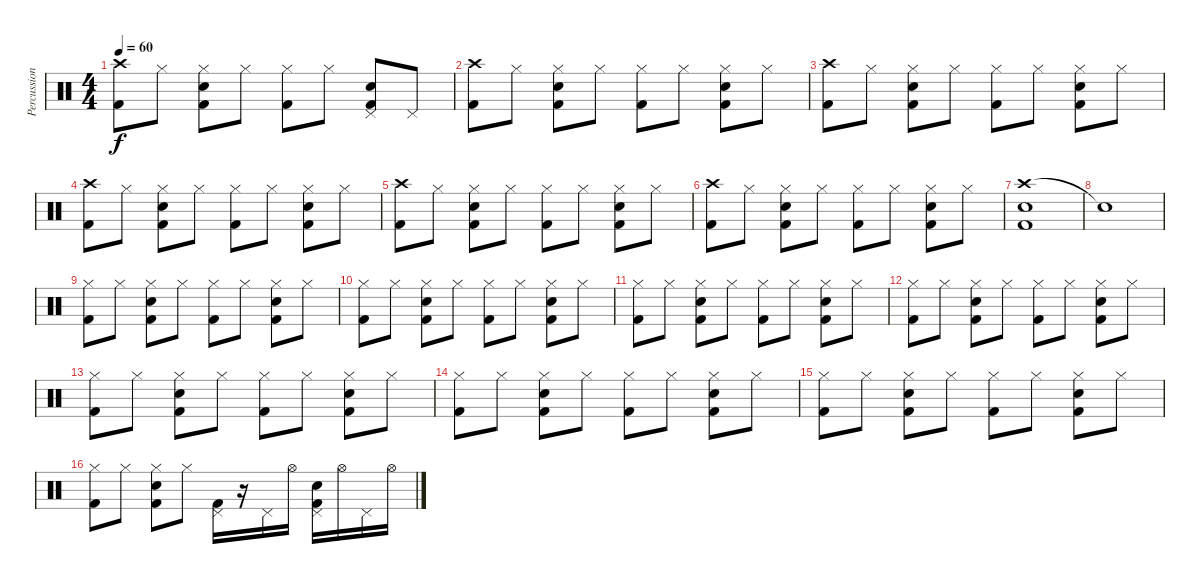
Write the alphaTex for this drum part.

\track ("Percussion" "Percussion") {instrument percussion}
\staff {score}
\articulation defaults
\ts (4 4)
\tempo 60
\clef neutral
\ks c
("Crash high (hit)" "Kick (hit) 2").8{dy f} "Hi-Hat (closed)".8 ("Hi-Hat (closed)" "Electric Snare (hit)" "Kick (hit) 2").8 "Hi-Hat (closed)".8 ("Hi-Hat (closed)" "Kick (hit) 2").8 "Hi-Hat (closed)".8 ("Pedal Hi-Hat (hit)" "Electric Snare (hit)" "Kick (hit) 2").8 "Pedal Hi-Hat (hit)".8 |
("Crash high (hit)" "Kick (hit) 2").8 "Hi-Hat (closed)".8 ("Hi-Hat (closed)" "Electric Snare (hit)" "Kick (hit) 2").8 "Hi-Hat (closed)".8 ("Hi-Hat (closed)" "Kick (hit) 2").8 "Hi-Hat (closed)".8 ("Hi-Hat (closed)" "Electric Snare (hit)" "Kick (hit) 2").8 "Hi-Hat (closed)".8 |
("Crash high (hit)" "Kick (hit) 2").8 "Hi-Hat (closed)".8 ("Hi-Hat (closed)" "Electric Snare (hit)" "Kick (hit) 2").8 "Hi-Hat (closed)".8 ("Hi-Hat (closed)" "Kick (hit) 2").8 "Hi-Hat (closed)".8 ("Hi-Hat (closed)" "Electric Snare (hit)" "Kick (hit) 2").8 "Hi-Hat (closed)".8 |
("Crash high (hit)" "Kick (hit) 2").8 "Hi-Hat (closed)".8 ("Hi-Hat (closed)" "Electric Snare (hit)" "Kick (hit) 2").8 "Hi-Hat (closed)".8 ("Hi-Hat (closed)" "Kick (hit) 2").8 "Hi-Hat (closed)".8 ("Hi-Hat (closed)" "Electric Snare (hit)" "Kick (hit) 2").8 "Hi-Hat (closed)".8 |
("Crash high (hit)" "Kick (hit) 2").8 "Hi-Hat (closed)".8 ("Hi-Hat (closed)" "Electric Snare (hit)" "Kick (hit) 2").8 "Hi-Hat (closed)".8 ("Hi-Hat (closed)" "Kick (hit) 2").8 "Hi-Hat (closed)".8 ("Hi-Hat (closed)" "Electric Snare (hit)" "Kick (hit) 2").8 "Hi-Hat (closed)".8 |
("Crash high (hit)" "Kick (hit) 2").8 "Hi-Hat (closed)".8 ("Hi-Hat (closed)" "Electric Snare (hit)" "Kick (hit) 2").8 "Hi-Hat (closed)".8 ("Hi-Hat (closed)" "Kick (hit) 2").8 "Hi-Hat (closed)".8 ("Hi-Hat (closed)" "Electric Snare (hit)" "Kick (hit) 2").8 "Hi-Hat (closed)".8 |
("Crash high (hit)" "Electric Snare (hit)" "Kick (hit) 2").1 |
"Snare (hit)"{t}.1 |
("Hi-Hat (closed)" "Kick (hit) 2").8 "Hi-Hat (closed)".8 ("Hi-Hat (closed)" "Electric Snare (hit)" "Kick (hit) 2").8 "Hi-Hat (closed)".8 ("Hi-Hat (closed)" "Kick (hit) 2").8 "Hi-Hat (closed)".8 ("Hi-Hat (closed)" "Electric Snare (hit)" "Kick (hit) 2").8 "Hi-Hat (closed)".8 |
("Hi-Hat (closed)" "Kick (hit) 2").8 "Hi-Hat (closed)".8 ("Hi-Hat (closed)" "Electric Snare (hit)" "Kick (hit) 2").8 "Hi-Hat (closed)".8 ("Hi-Hat (closed)" "Kick (hit) 2").8 "Hi-Hat (closed)".8 ("Hi-Hat (closed)" "Electric Snare (hit)" "Kick (hit) 2").8 "Hi-Hat (closed)".8 |
("Hi-Hat (closed)" "Kick (hit) 2").8 "Hi-Hat (closed)".8 ("Hi-Hat (closed)" "Electric Snare (hit)" "Kick (hit) 2").8 "Hi-Hat (closed)".8 ("Hi-Hat (closed)" "Kick (hit) 2").8 "Hi-Hat (closed)".8 ("Hi-Hat (closed)" "Electric Snare (hit)" "Kick (hit) 2").8 "Hi-Hat (closed)".8 |
("Hi-Hat (closed)" "Kick (hit) 2").8 "Hi-Hat (closed)".8 ("Hi-Hat (closed)" "Electric Snare (hit)" "Kick (hit) 2").8 "Hi-Hat (closed)".8 ("Hi-Hat (closed)" "Kick (hit) 2").8 "Hi-Hat (closed)".8 ("Hi-Hat (closed)" "Electric Snare (hit)" "Kick (hit) 2").8 "Hi-Hat (closed)".8 |
("Hi-Hat (closed)" "Kick (hit) 2").8 "Hi-Hat (closed)".8 ("Hi-Hat (closed)" "Electric Snare (hit)" "Kick (hit) 2").8 "Hi-Hat (closed)".8 ("Hi-Hat (closed)" "Kick (hit) 2").8 "Hi-Hat (closed)".8 ("Hi-Hat (closed)" "Electric Snare (hit)" "Kick (hit) 2").8 "Hi-Hat (closed)".8 |
("Hi-Hat (closed)" "Kick (hit) 2").8 "Hi-Hat (closed)".8 ("Hi-Hat (closed)" "Electric Snare (hit)" "Kick (hit) 2").8 "Hi-Hat (closed)".8 ("Hi-Hat (closed)" "Kick (hit) 2").8 "Hi-Hat (closed)".8 ("Hi-Hat (closed)" "Electric Snare (hit)" "Kick (hit) 2").8 "Hi-Hat (closed)".8 |
("Hi-Hat (closed)" "Kick (hit) 2").8 "Hi-Hat (closed)".8 ("Hi-Hat (closed)" "Electric Snare (hit)" "Kick (hit) 2").8 "Hi-Hat (closed)".8 ("Hi-Hat (closed)" "Kick (hit) 2").8 "Hi-Hat (closed)".8 ("Hi-Hat (closed)" "Electric Snare (hit)" "Kick (hit) 2").8 "Hi-Hat (closed)".8 |
("Hi-Hat (closed)" "Kick (hit) 2").8 "Hi-Hat (closed)".8 ("Hi-Hat (closed)" "Electric Snare (hit)" "Kick (hit) 2").8 "Hi-Hat (closed)".8 ("Pedal Hi-Hat (hit)" "Kick (hit) 2").16 r.16 "Pedal Hi-Hat (hit)".16 "Hi-Hat (open)".16 ("Pedal Hi-Hat (hit)" "Electric Snare (hit)" "Kick (hit) 2").16 "Hi-Hat (open)".16 "Pedal Hi-Hat (hit)".16 "Hi-Hat (open)".16
